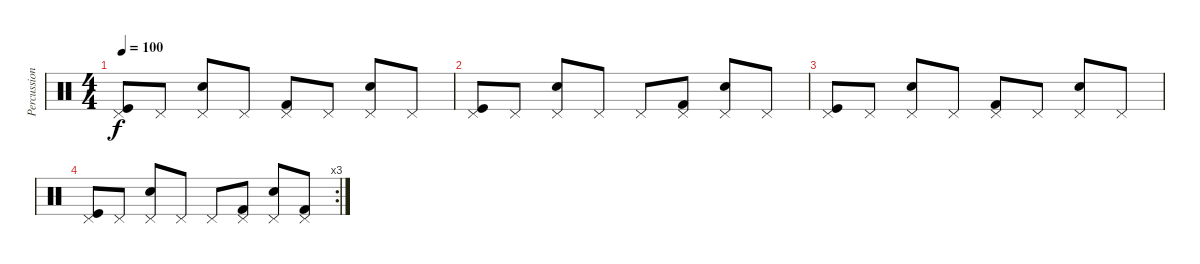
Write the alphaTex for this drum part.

\track ("Percussion" "Percussion") {instrument percussion}
\staff {score}
\articulation defaults
\ts (4 4)
\tempo 100
\clef neutral
\ks c
("Pedal Hi-Hat (hit)" "Kick (hit)").8{dy f} "Pedal Hi-Hat (hit)".8 ("Pedal Hi-Hat (hit)" "Electric Snare (hit)").8 "Pedal Hi-Hat (hit)".8 ("Pedal Hi-Hat (hit)" "Kick (hit) 2").8 "Pedal Hi-Hat (hit)".8 ("Pedal Hi-Hat (hit)" "Electric Snare (hit)").8 "Pedal Hi-Hat (hit)".8 |
("Pedal Hi-Hat (hit)" "Kick (hit)").8 "Pedal Hi-Hat (hit)".8 ("Pedal Hi-Hat (hit)" "Electric Snare (hit)").8 "Pedal Hi-Hat (hit)".8 "Pedal Hi-Hat (hit)".8 ("Pedal Hi-Hat (hit)" "Kick (hit) 2").8 ("Pedal Hi-Hat (hit)" "Electric Snare (hit)").8 "Pedal Hi-Hat (hit)".8 |
("Pedal Hi-Hat (hit)" "Kick (hit)").8 "Pedal Hi-Hat (hit)".8 ("Pedal Hi-Hat (hit)" "Electric Snare (hit)").8 "Pedal Hi-Hat (hit)".8 ("Pedal Hi-Hat (hit)" "Kick (hit) 2").8 "Pedal Hi-Hat (hit)".8 ("Pedal Hi-Hat (hit)" "Electric Snare (hit)").8 "Pedal Hi-Hat (hit)".8 |
\rc 3
("Pedal Hi-Hat (hit)" "Kick (hit)").8 "Pedal Hi-Hat (hit)".8 ("Pedal Hi-Hat (hit)" "Electric Snare (hit)").8 "Pedal Hi-Hat (hit)".8 "Pedal Hi-Hat (hit)".8 ("Pedal Hi-Hat (hit)" "Kick (hit) 2").8 ("Pedal Hi-Hat (hit)" "Electric Snare (hit)").8 ("Pedal Hi-Hat (hit)" "Kick (hit) 2").8
